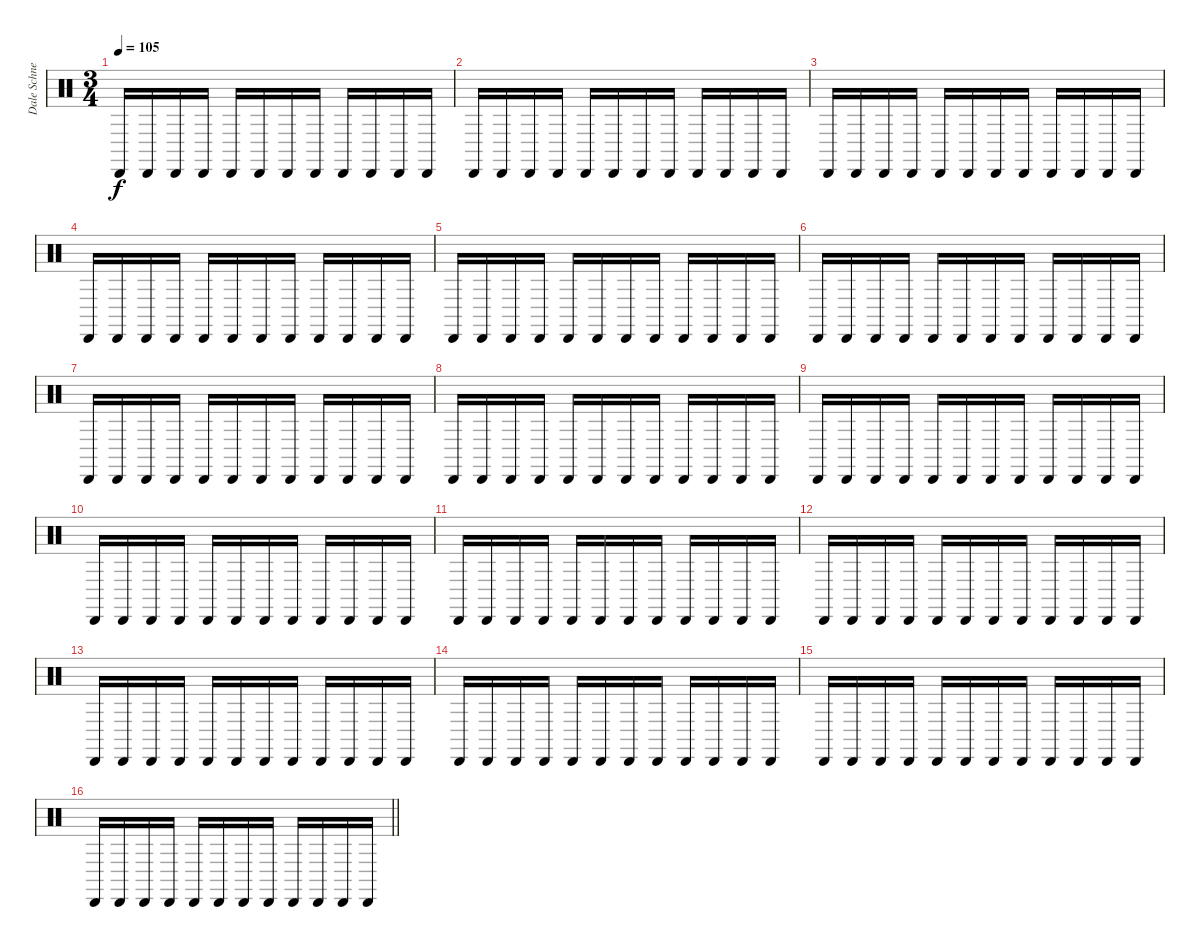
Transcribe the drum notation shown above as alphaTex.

\track ("Dale Schnettler (Drums)" "Dale Schne") {instrument percussion}
\staff {score}
\articulation defaults
\ts (3 4)
\tempo 105
\clef neutral
\ks c "Cabasa (hit)".16{dy f} "Cabasa (hit)".16 "Cabasa (hit)".16 "Cabasa (hit)".16 "Cabasa (hit)".16 "Cabasa (hit)".16 "Cabasa (hit)".16 "Cabasa (hit)".16 "Cabasa (hit)".16 "Cabasa (hit)".16 "Cabasa (hit)".16 "Cabasa (hit)".16
|
"Cabasa (hit)".16 "Cabasa (hit)".16 "Cabasa (hit)".16 "Cabasa (hit)".16 "Cabasa (hit)".16 "Cabasa (hit)".16 "Cabasa (hit)".16 "Cabasa (hit)".16 "Cabasa (hit)".16 "Cabasa (hit)".16 "Cabasa (hit)".16 "Cabasa (hit)".16 |
"Cabasa (hit)".16 "Cabasa (hit)".16 "Cabasa (hit)".16 "Cabasa (hit)".16 "Cabasa (hit)".16 "Cabasa (hit)".16 "Cabasa (hit)".16 "Cabasa (hit)".16 "Cabasa (hit)".16 "Cabasa (hit)".16 "Cabasa (hit)".16 "Cabasa (hit)".16 |
"Cabasa (hit)".16 "Cabasa (hit)".16 "Cabasa (hit)".16 "Cabasa (hit)".16 "Cabasa (hit)".16 "Cabasa (hit)".16 "Cabasa (hit)".16 "Cabasa (hit)".16 "Cabasa (hit)".16 "Cabasa (hit)".16 "Cabasa (hit)".16 "Cabasa (hit)".16 |
"Cabasa (hit)".16 "Cabasa (hit)".16 "Cabasa (hit)".16 "Cabasa (hit)".16 "Cabasa (hit)".16 "Cabasa (hit)".16 "Cabasa (hit)".16 "Cabasa (hit)".16 "Cabasa (hit)".16 "Cabasa (hit)".16 "Cabasa (hit)".16 "Cabasa (hit)".16 |
"Cabasa (hit)".16 "Cabasa (hit)".16 "Cabasa (hit)".16 "Cabasa (hit)".16 "Cabasa (hit)".16 "Cabasa (hit)".16 "Cabasa (hit)".16 "Cabasa (hit)".16 "Cabasa (hit)".16 "Cabasa (hit)".16 "Cabasa (hit)".16 "Cabasa (hit)".16 |
"Cabasa (hit)".16 "Cabasa (hit)".16 "Cabasa (hit)".16 "Cabasa (hit)".16 "Cabasa (hit)".16 "Cabasa (hit)".16 "Cabasa (hit)".16 "Cabasa (hit)".16 "Cabasa (hit)".16 "Cabasa (hit)".16 "Cabasa (hit)".16 "Cabasa (hit)".16 |
"Cabasa (hit)".16 "Cabasa (hit)".16 "Cabasa (hit)".16 "Cabasa (hit)".16 "Cabasa (hit)".16 "Cabasa (hit)".16 "Cabasa (hit)".16 "Cabasa (hit)".16 "Cabasa (hit)".16 "Cabasa (hit)".16 "Cabasa (hit)".16 "Cabasa (hit)".16 |
"Cabasa (hit)".16 "Cabasa (hit)".16 "Cabasa (hit)".16 "Cabasa (hit)".16 "Cabasa (hit)".16 "Cabasa (hit)".16 "Cabasa (hit)".16 "Cabasa (hit)".16 "Cabasa (hit)".16 "Cabasa (hit)".16 "Cabasa (hit)".16 "Cabasa (hit)".16 |
"Cabasa (hit)".16 "Cabasa (hit)".16 "Cabasa (hit)".16 "Cabasa (hit)".16 "Cabasa (hit)".16 "Cabasa (hit)".16 "Cabasa (hit)".16 "Cabasa (hit)".16 "Cabasa (hit)".16 "Cabasa (hit)".16 "Cabasa (hit)".16 "Cabasa (hit)".16 |
"Cabasa (hit)".16 "Cabasa (hit)".16 "Cabasa (hit)".16 "Cabasa (hit)".16 "Cabasa (hit)".16 "Cabasa (hit)".16 "Cabasa (hit)".16 "Cabasa (hit)".16 "Cabasa (hit)".16 "Cabasa (hit)".16 "Cabasa (hit)".16 "Cabasa (hit)".16 |
"Cabasa (hit)".16 "Cabasa (hit)".16 "Cabasa (hit)".16 "Cabasa (hit)".16 "Cabasa (hit)".16 "Cabasa (hit)".16 "Cabasa (hit)".16 "Cabasa (hit)".16 "Cabasa (hit)".16 "Cabasa (hit)".16 "Cabasa (hit)".16 "Cabasa (hit)".16 |
"Cabasa (hit)".16 "Cabasa (hit)".16 "Cabasa (hit)".16 "Cabasa (hit)".16 "Cabasa (hit)".16 "Cabasa (hit)".16 "Cabasa (hit)".16 "Cabasa (hit)".16 "Cabasa (hit)".16 "Cabasa (hit)".16 "Cabasa (hit)".16 "Cabasa (hit)".16 |
"Cabasa (hit)".16 "Cabasa (hit)".16 "Cabasa (hit)".16 "Cabasa (hit)".16 "Cabasa (hit)".16 "Cabasa (hit)".16 "Cabasa (hit)".16 "Cabasa (hit)".16 "Cabasa (hit)".16 "Cabasa (hit)".16 "Cabasa (hit)".16 "Cabasa (hit)".16 |
"Cabasa (hit)".16 "Cabasa (hit)".16 "Cabasa (hit)".16 "Cabasa (hit)".16 "Cabasa (hit)".16 "Cabasa (hit)".16 "Cabasa (hit)".16 "Cabasa (hit)".16 "Cabasa (hit)".16 "Cabasa (hit)".16 "Cabasa (hit)".16 "Cabasa (hit)".16 |
\barLineRight lightlight "Cabasa (hit)".16 "Cabasa (hit)".16 "Cabasa (hit)".16 "Cabasa (hit)".16 "Cabasa (hit)".16 "Cabasa (hit)".16 "Cabasa (hit)".16 "Cabasa (hit)".16 "Cabasa (hit)".16 "Cabasa (hit)".16 "Cabasa (hit)".16 "Cabasa (hit)".16
